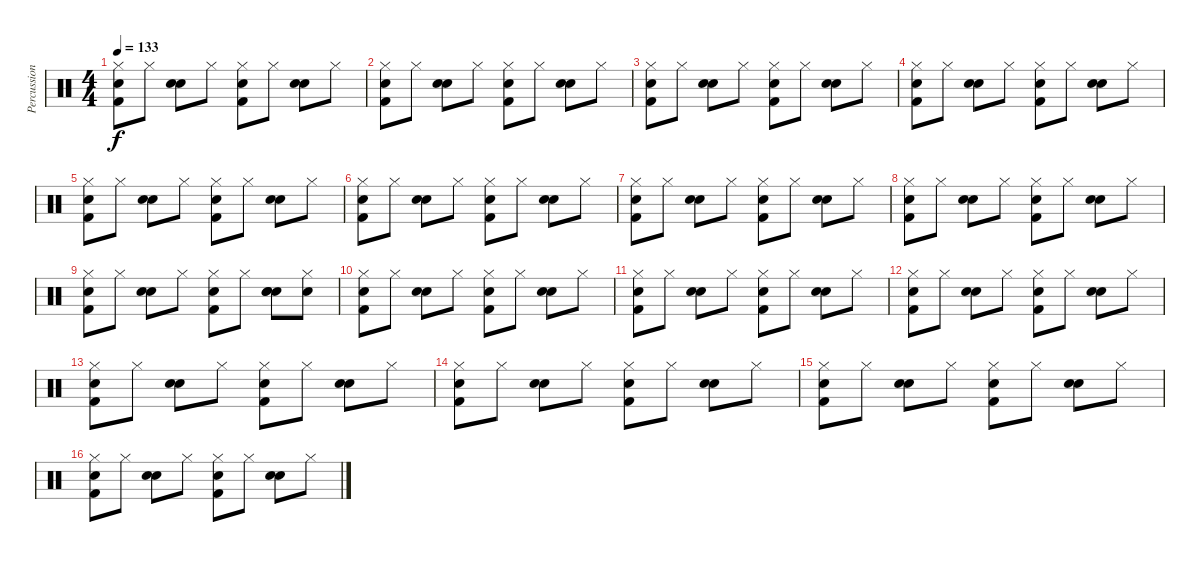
\track ("Percussions" "Percussion") {instrument percussion}
\staff {score}
\articulation defaults
\ts (4 4)
\tempo 133
\clef neutral
\ks c
("Snare (hit) 2" "Kick (hit) 2" "Hi-Hat (closed)").8{dy f} "Hi-Hat (closed)".8 ("Electric Snare (hit)" "Electric Snare (hit)").8 "Hi-Hat (closed)".8 ("Snare (hit) 2" "Kick (hit) 2" "Hi-Hat (closed)").8 "Hi-Hat (closed)".8 ("Electric Snare (hit)" "Electric Snare (hit)").8 "Hi-Hat (closed)".8 |
("Snare (hit) 2" "Kick (hit) 2" "Hi-Hat (closed)").8 "Hi-Hat (closed)".8 ("Electric Snare (hit)" "Electric Snare (hit)").8 "Hi-Hat (closed)".8 ("Snare (hit) 2" "Kick (hit) 2" "Hi-Hat (closed)").8 "Hi-Hat (closed)".8 ("Electric Snare (hit)" "Electric Snare (hit)").8 "Hi-Hat (closed)".8 |
("Snare (hit) 2" "Kick (hit) 2" "Hi-Hat (closed)").8 "Hi-Hat (closed)".8 ("Electric Snare (hit)" "Electric Snare (hit)").8 "Hi-Hat (closed)".8 ("Snare (hit) 2" "Kick (hit) 2" "Hi-Hat (closed)").8 "Hi-Hat (closed)".8 ("Electric Snare (hit)" "Electric Snare (hit)").8 "Hi-Hat (closed)".8 |
("Snare (hit) 2" "Kick (hit) 2" "Hi-Hat (closed)").8 "Hi-Hat (closed)".8 ("Electric Snare (hit)" "Electric Snare (hit)").8 "Hi-Hat (closed)".8 ("Snare (hit) 2" "Kick (hit) 2" "Hi-Hat (closed)").8 "Hi-Hat (closed)".8 ("Electric Snare (hit)" "Electric Snare (hit)").8 "Hi-Hat (closed)".8 |
("Snare (hit) 2" "Kick (hit) 2" "Hi-Hat (closed)").8 "Hi-Hat (closed)".8 ("Electric Snare (hit)" "Electric Snare (hit)").8 "Hi-Hat (closed)".8 ("Snare (hit) 2" "Kick (hit) 2" "Hi-Hat (closed)").8 "Hi-Hat (closed)".8 ("Electric Snare (hit)" "Electric Snare (hit)").8 "Hi-Hat (closed)".8 |
("Snare (hit) 2" "Kick (hit) 2" "Hi-Hat (closed)").8 "Hi-Hat (closed)".8 ("Electric Snare (hit)" "Electric Snare (hit)").8 "Hi-Hat (closed)".8 ("Snare (hit) 2" "Kick (hit) 2" "Hi-Hat (closed)").8 "Hi-Hat (closed)".8 ("Electric Snare (hit)" "Electric Snare (hit)").8 "Hi-Hat (closed)".8 |
("Snare (hit) 2" "Kick (hit) 2" "Hi-Hat (closed)").8 "Hi-Hat (closed)".8 ("Electric Snare (hit)" "Electric Snare (hit)").8 "Hi-Hat (closed)".8 ("Snare (hit) 2" "Kick (hit) 2" "Hi-Hat (closed)").8 "Hi-Hat (closed)".8 ("Electric Snare (hit)" "Electric Snare (hit)").8 "Hi-Hat (closed)".8 |
("Snare (hit) 2" "Kick (hit) 2" "Hi-Hat (closed)").8 "Hi-Hat (closed)".8 ("Electric Snare (hit)" "Electric Snare (hit)").8 "Hi-Hat (closed)".8 ("Snare (hit) 2" "Kick (hit) 2" "Hi-Hat (closed)").8 "Hi-Hat (closed)".8 ("Electric Snare (hit)" "Electric Snare (hit)").8 "Hi-Hat (closed)".8 |
("Snare (hit) 2" "Kick (hit) 2" "Hi-Hat (closed)").8 "Hi-Hat (closed)".8 ("Electric Snare (hit)" "Electric Snare (hit)").8 "Hi-Hat (closed)".8 ("Snare (hit) 2" "Kick (hit) 2" "Hi-Hat (closed)").8 "Hi-Hat (closed)".8 ("Electric Snare (hit)" "Electric Snare (hit)" "Snare (hit) 2").8 ("Snare (hit) 2" "Hi-Hat (closed)").8 |
("Snare (hit) 2" "Kick (hit) 2" "Hi-Hat (closed)").8 "Hi-Hat (closed)".8 ("Electric Snare (hit)" "Electric Snare (hit)").8 "Hi-Hat (closed)".8 ("Snare (hit) 2" "Kick (hit) 2" "Hi-Hat (closed)").8 "Hi-Hat (closed)".8 ("Electric Snare (hit)" "Electric Snare (hit)").8 "Hi-Hat (closed)".8 |
("Snare (hit) 2" "Kick (hit) 2" "Hi-Hat (closed)").8 "Hi-Hat (closed)".8 ("Electric Snare (hit)" "Electric Snare (hit)").8 "Hi-Hat (closed)".8 ("Snare (hit) 2" "Kick (hit) 2" "Hi-Hat (closed)").8 "Hi-Hat (closed)".8 ("Electric Snare (hit)" "Electric Snare (hit)").8 "Hi-Hat (closed)".8 |
("Snare (hit) 2" "Kick (hit) 2" "Hi-Hat (closed)").8 "Hi-Hat (closed)".8 ("Electric Snare (hit)" "Electric Snare (hit)").8 "Hi-Hat (closed)".8 ("Snare (hit) 2" "Kick (hit) 2" "Hi-Hat (closed)").8 "Hi-Hat (closed)".8 ("Electric Snare (hit)" "Electric Snare (hit)").8 "Hi-Hat (closed)".8 |
("Snare (hit) 2" "Kick (hit) 2" "Hi-Hat (closed)").8 "Hi-Hat (closed)".8 ("Electric Snare (hit)" "Electric Snare (hit)").8 "Hi-Hat (closed)".8 ("Snare (hit) 2" "Kick (hit) 2" "Hi-Hat (closed)").8 "Hi-Hat (closed)".8 ("Electric Snare (hit)" "Electric Snare (hit)").8 "Hi-Hat (closed)".8 |
("Snare (hit) 2" "Kick (hit) 2" "Hi-Hat (closed)").8 "Hi-Hat (closed)".8 ("Electric Snare (hit)" "Electric Snare (hit)").8 "Hi-Hat (closed)".8 ("Snare (hit) 2" "Kick (hit) 2" "Hi-Hat (closed)").8 "Hi-Hat (closed)".8 ("Electric Snare (hit)" "Electric Snare (hit)").8 "Hi-Hat (closed)".8 |
("Snare (hit) 2" "Kick (hit) 2" "Hi-Hat (closed)").8 "Hi-Hat (closed)".8 ("Electric Snare (hit)" "Electric Snare (hit)").8 "Hi-Hat (closed)".8 ("Snare (hit) 2" "Kick (hit) 2" "Hi-Hat (closed)").8 "Hi-Hat (closed)".8 ("Electric Snare (hit)" "Electric Snare (hit)").8 "Hi-Hat (closed)".8 |
("Snare (hit) 2" "Kick (hit) 2" "Hi-Hat (closed)").8 "Hi-Hat (closed)".8 ("Electric Snare (hit)" "Electric Snare (hit)").8 "Hi-Hat (closed)".8 ("Snare (hit) 2" "Kick (hit) 2" "Hi-Hat (closed)").8 "Hi-Hat (closed)".8 ("Electric Snare (hit)" "Electric Snare (hit)").8 "Hi-Hat (closed)".8
